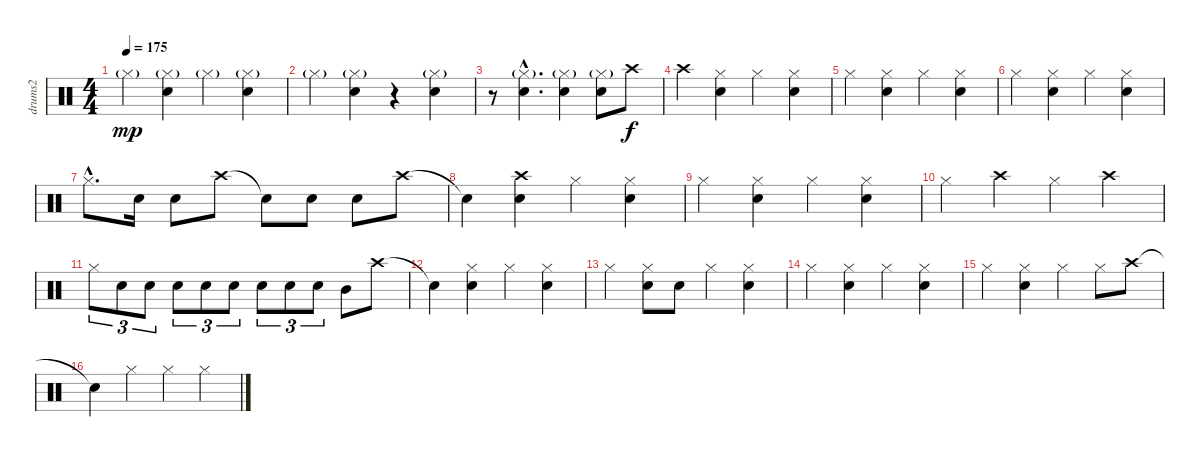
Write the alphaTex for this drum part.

\track ("drums2" "drums2") {instrument percussion}
\staff {score}
\articulation defaults
\ts (4 4)
\tempo 175
\clef neutral
\ks c "Hi-Hat (closed)"{g}.4{dy mp}
("Hi-Hat (closed)"{g} "Snare (hit) 2").4 "Hi-Hat (closed)"{g}.4 ("Hi-Hat (closed)"{g} "Snare (hit) 2").4 |
"Hi-Hat (closed)"{g}.4 ("Hi-Hat (closed)"{g} "Snare (hit) 2").4 r.4 ("Hi-Hat (closed)"{g} "Snare (hit) 2").4 |
r.8 ("Hi-Hat (closed)"{g hac} "Snare (hit) 2"{hac}).4{d} ("Hi-Hat (closed)"{g} "Snare (hit) 2").4 ("Hi-Hat (closed)"{g} "Snare (hit) 2").8 "Crash high (hit)".8{dy f} |
"Crash high (hit)".4 ("Hi-Hat (closed)" "Snare (hit) 2").4 "Hi-Hat (closed)".4 ("Hi-Hat (closed)" "Snare (hit) 2").4 |
"Hi-Hat (closed)".4 ("Hi-Hat (closed)" "Snare (hit) 2").4 "Hi-Hat (closed)".4 ("Hi-Hat (closed)" "Snare (hit) 2").4 |
"Hi-Hat (closed)".4 ("Hi-Hat (closed)" "Snare (hit) 2").4 "Hi-Hat (closed)".4 ("Hi-Hat (closed)" "Snare (hit) 2").4 |
"Hi-Hat (closed)"{hac}.8{d} "Snare (hit) 2".16 "Snare (hit) 2".8 "Crash high (hit)".8 "Snare (hit)"{t}.8 "Snare (hit) 2".8 "Snare (hit) 2".8 "Crash high (hit)".8 |
"Snare (hit)"{t}.4 ("Crash high (hit)" "Snare (hit) 2").4 "Hi-Hat (closed)".4 ("Hi-Hat (closed)" "Snare (hit) 2").4 |
"Hi-Hat (closed)".4 ("Hi-Hat (closed)" "Snare (hit) 2").4 "Hi-Hat (closed)".4 ("Hi-Hat (closed)" "Snare (hit) 2").4 |
"Hi-Hat (closed)".4 "Crash high (hit)".4 "Hi-Hat (closed)".4 "Crash high (hit)".4 |
"Hi-Hat (closed)".8{tu (3 2)} "Snare (hit) 2".8{tu (3 2)} "Snare (hit) 2".8{tu (3 2)} "Snare (hit) 2".8{tu (3 2)} "Snare (hit) 2".8{tu (3 2)} "Snare (hit) 2".8{tu (3 2)} "Snare (hit) 2".8{tu (3 2)} "Snare (hit) 2".8{tu (3 2)} "Snare (hit) 2".8{tu (3 2)} "Mid Tom (hit)".8 "Crash high (hit)".8 |
"Snare (hit)"{t}.4 ("Hi-Hat (closed)" "Snare (hit) 2").4 "Hi-Hat (closed)".4 ("Hi-Hat (closed)" "Snare (hit) 2").4 |
"Hi-Hat (closed)".4 ("Hi-Hat (closed)" "Snare (hit) 2").8 "Snare (hit) 2".8 "Hi-Hat (closed)".4 ("Hi-Hat (closed)" "Snare (hit) 2").4 |
"Hi-Hat (closed)".4 ("Hi-Hat (closed)" "Snare (hit) 2").4 "Hi-Hat (closed)".4 ("Hi-Hat (closed)" "Snare (hit) 2").4 |
"Hi-Hat (closed)".4 ("Hi-Hat (closed)" "Snare (hit) 2").4 "Hi-Hat (closed)".4 "Hi-Hat (closed)".8 "Crash high (hit)".8 |
"Snare (hit)"{t}.4 "Hi-Hat (closed)".4 "Hi-Hat (closed)".4 "Hi-Hat (closed)".4
